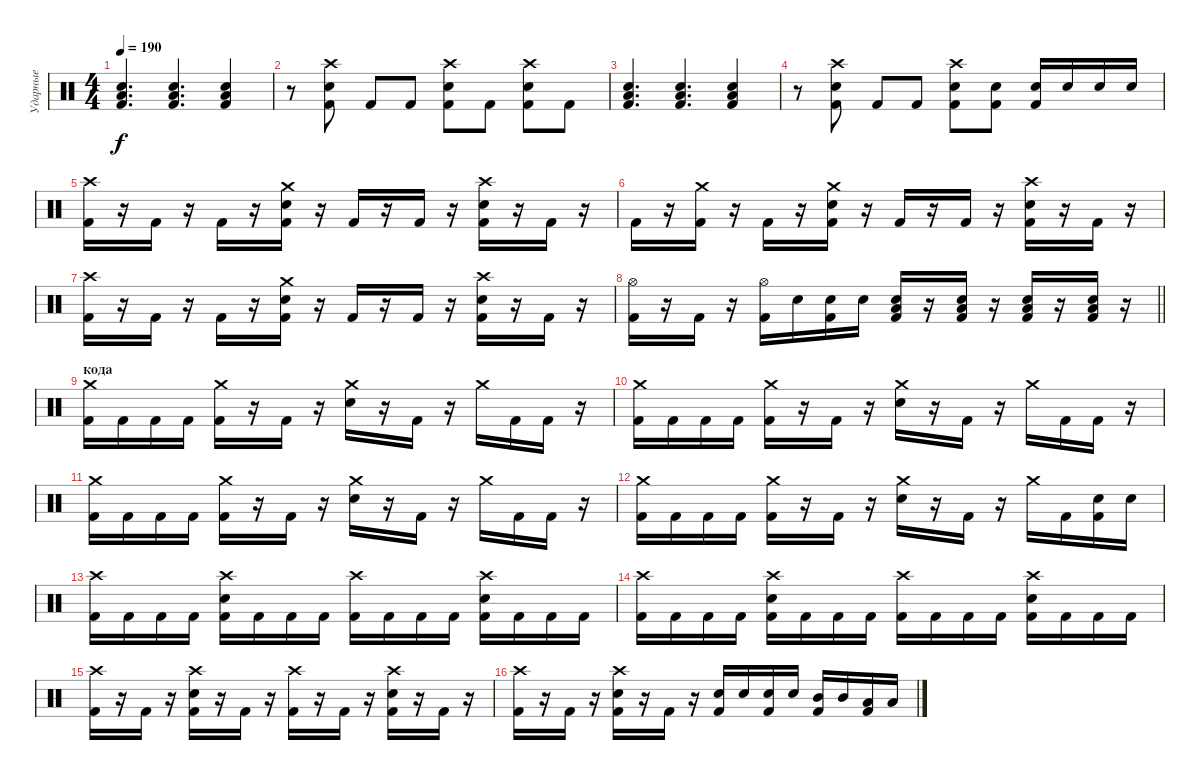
\track ("Ударные" "Ударные") {instrument percussion}
\staff {score}
\articulation defaults
\ts (4 4)
\tempo 190
\clef neutral
\ks c
("Low Floor Tom (hit)" "Electric Snare (hit)" "Kick (hit) 2").4{d dy f} ("Low Floor Tom (hit)" "Electric Snare (hit)" "Kick (hit) 2").4{d} ("Low Floor Tom (hit)" "Electric Snare (hit)" "Kick (hit) 2").4 |
r.8 ("Crash high (hit)" "Electric Snare (hit)" "Kick (hit) 2").8 "Kick (hit) 2".8 "Kick (hit) 2".8 ("Crash high (hit)" "Electric Snare (hit)" "Kick (hit) 2").8 "Kick (hit) 2".8 ("Crash high (hit)" "Electric Snare (hit)" "Kick (hit) 2").8 "Kick (hit) 2".8 |
("Low Floor Tom (hit)" "Electric Snare (hit)" "Kick (hit) 2").4{d} ("Low Floor Tom (hit)" "Electric Snare (hit)" "Kick (hit) 2").4{d} ("Low Floor Tom (hit)" "Electric Snare (hit)" "Kick (hit) 2").4 |
r.8 ("Crash high (hit)" "Electric Snare (hit)" "Kick (hit) 2").8 "Kick (hit) 2".8 "Kick (hit) 2".8 ("Crash high (hit)" "Electric Snare (hit)" "Kick (hit) 2").8 ("Electric Snare (hit)" "Kick (hit) 2").8 ("Electric Snare (hit)" "Kick (hit) 2").16 "Electric Snare (hit)".16 "Electric Snare (hit)".16 "Electric Snare (hit)".16 |
("Crash high (hit)" "Kick (hit) 2").16 r.16 "Kick (hit) 2".16 r.16 "Kick (hit) 2".16 r.16 ("Crash medium (hit)" "Kick (hit) 2" "Electric Snare (hit)").16 r.16 "Kick (hit) 2".16 r.16 "Kick (hit) 2".16 r.16 ("Crash high (hit)" "Kick (hit) 2" "Electric Snare (hit)").16 r.16 "Kick (hit) 2".16 r.16 |
"Kick (hit) 2".16 r.16 ("Crash medium (hit)" "Kick (hit) 2").16 r.16 "Kick (hit) 2".16 r.16 ("Crash medium (hit)" "Kick (hit) 2" "Electric Snare (hit)").16 r.16 "Kick (hit) 2".16 r.16 "Kick (hit) 2".16 r.16 ("Crash high (hit)" "Kick (hit) 2" "Electric Snare (hit)").16 r.16 "Kick (hit) 2".16 r.16 |
("Crash high (hit)" "Kick (hit) 2").16 r.16 "Kick (hit) 2".16 r.16 "Kick (hit) 2".16 r.16 ("Crash medium (hit)" "Kick (hit) 2" "Electric Snare (hit)").16 r.16 "Kick (hit) 2".16 r.16 "Kick (hit) 2".16 r.16 ("Crash high (hit)" "Kick (hit) 2" "Electric Snare (hit)").16 r.16 "Kick (hit) 2".16 r.16 |
\barLineRight lightlight
("Hi-Hat (open)" "Kick (hit) 2").16 r.16 "Kick (hit) 2".16 r.16 ("Hi-Hat (open)" "Kick (hit) 2").16 "Electric Snare (hit)".16 ("Kick (hit) 2" "Electric Snare (hit)").16 "Electric Snare (hit)".16 ("Electric Snare (hit)" "Kick (hit) 2" "Low Floor Tom (hit)").16 r.16 ("Electric Snare (hit)" "Kick (hit) 2" "Low Floor Tom (hit)").16 r.16 ("Kick (hit) 2" "Low Floor Tom (hit)" "Electric Snare (hit)").16 r.16 ("Electric Snare (hit)" "Low Floor Tom (hit)" "Kick (hit) 2").16 r.16 |
\section ("" "кода")
("Kick (hit) 2" "Crash medium (hit)").16 "Kick (hit) 2".16 "Kick (hit) 2".16 "Kick (hit) 2".16 ("Kick (hit) 2" "Crash medium (hit)").16 r.16 "Kick (hit) 2".16 r.16 ("Electric Snare (hit)" "Crash medium (hit)").16 r.16 "Kick (hit) 2".16 r.16 "Crash medium (hit)".16 "Kick (hit) 2".16 "Kick (hit) 2".16 r.16 |
("Kick (hit) 2" "Crash medium (hit)").16 "Kick (hit) 2".16 "Kick (hit) 2".16 "Kick (hit) 2".16 ("Kick (hit) 2" "Crash medium (hit)").16 r.16 "Kick (hit) 2".16 r.16 ("Electric Snare (hit)" "Crash medium (hit)").16 r.16 "Kick (hit) 2".16 r.16 "Crash medium (hit)".16 "Kick (hit) 2".16 "Kick (hit) 2".16 r.16 |
("Kick (hit) 2" "Crash medium (hit)").16 "Kick (hit) 2".16 "Kick (hit) 2".16 "Kick (hit) 2".16 ("Kick (hit) 2" "Crash medium (hit)").16 r.16 "Kick (hit) 2".16 r.16 ("Electric Snare (hit)" "Crash medium (hit)").16 r.16 "Kick (hit) 2".16 r.16 "Crash medium (hit)".16 "Kick (hit) 2".16 "Kick (hit) 2".16 r.16 |
("Kick (hit) 2" "Crash medium (hit)").16 "Kick (hit) 2".16 "Kick (hit) 2".16 "Kick (hit) 2".16 ("Kick (hit) 2" "Crash medium (hit)").16 r.16 "Kick (hit) 2".16 r.16 ("Electric Snare (hit)" "Crash medium (hit)").16 r.16 "Kick (hit) 2".16 r.16 "Crash medium (hit)".16 "Kick (hit) 2".16 ("Electric Snare (hit)" "Kick (hit) 2").16 "Electric Snare (hit)".16 |
("Crash high (hit)" "Kick (hit) 2").16 "Kick (hit) 2".16 "Kick (hit) 2".16 "Kick (hit) 2".16 ("Crash high (hit)" "Electric Snare (hit)" "Kick (hit) 2").16 "Kick (hit) 2".16 "Kick (hit) 2".16 "Kick (hit) 2".16 ("Crash high (hit)" "Kick (hit) 2").16 "Kick (hit) 2".16 "Kick (hit) 2".16 "Kick (hit) 2".16 ("Crash high (hit)" "Electric Snare (hit)" "Kick (hit) 2").16 "Kick (hit) 2".16 "Kick (hit) 2".16 "Kick (hit) 2".16 |
("Crash high (hit)" "Kick (hit) 2").16 "Kick (hit) 2".16 "Kick (hit) 2".16 "Kick (hit) 2".16 ("Crash high (hit)" "Electric Snare (hit)" "Kick (hit) 2").16 "Kick (hit) 2".16 "Kick (hit) 2".16 "Kick (hit) 2".16 ("Crash high (hit)" "Kick (hit) 2").16 "Kick (hit) 2".16 "Kick (hit) 2".16 "Kick (hit) 2".16 ("Crash high (hit)" "Electric Snare (hit)" "Kick (hit) 2").16 "Kick (hit) 2".16 "Kick (hit) 2".16 "Kick (hit) 2".16 |
("Crash high (hit)" "Kick (hit) 2").16 r.16 "Kick (hit) 2".16 r.16 ("Crash high (hit)" "Electric Snare (hit)" "Kick (hit) 2").16 r.16 "Kick (hit) 2".16 r.16 ("Crash high (hit)" "Kick (hit) 2").16 r.16 "Kick (hit) 2".16 r.16 ("Crash high (hit)" "Electric Snare (hit)" "Kick (hit) 2").16 r.16 "Kick (hit) 2".16 r.16 |
("Crash high (hit)" "Kick (hit) 2").16 r.16 "Kick (hit) 2".16 r.16 ("Crash high (hit)" "Electric Snare (hit)" "Kick (hit) 2").16 r.16 "Kick (hit) 2".16 r.16 ("Electric Snare (hit)" "Kick (hit) 2").16 "Electric Snare (hit)".16 ("Electric Snare (hit)" "Kick (hit) 2").16 "Electric Snare (hit)".16 ("Mid Tom (hit)" "Kick (hit) 2").16 "Mid Tom (hit)".16 ("Low Floor Tom (hit)" "Kick (hit) 2").16 "Low Floor Tom (hit)".16
